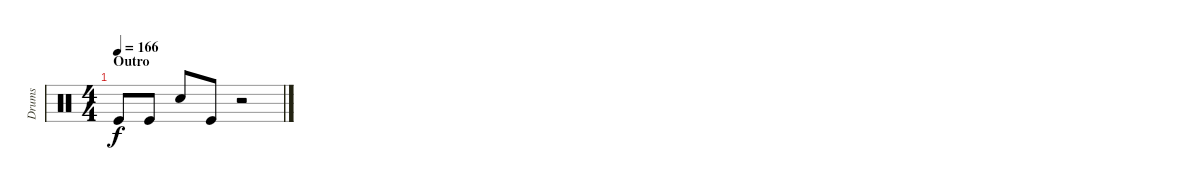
\track ("Drums" "Drums") {instrument percussion}
\staff {score}
\articulation defaults
\ts (4 4)
\section ("" "Outro")
\tempo 166
\clef neutral
\ks c "Kick (hit)".8{dy f} "Kick (hit)".8 "Electric Snare (hit)".8 "Kick (hit)".8
r.2
